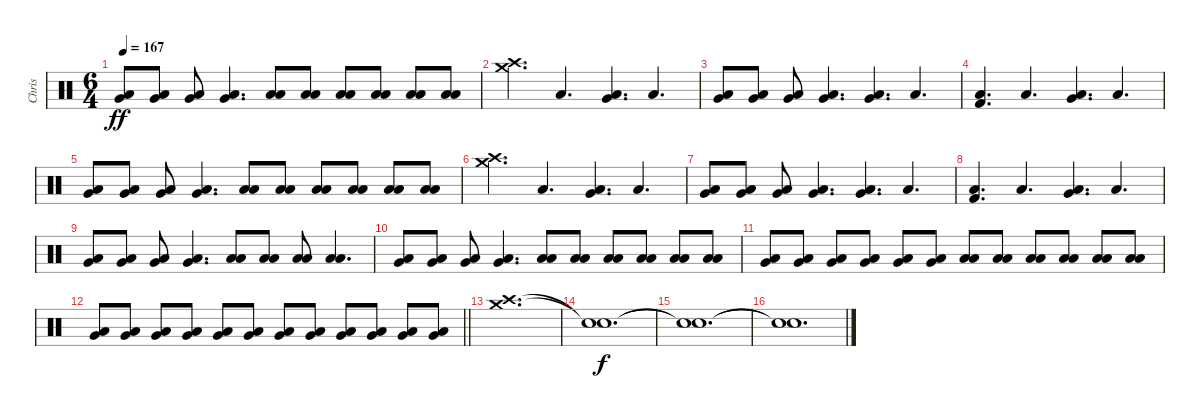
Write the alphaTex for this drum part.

\track ("Chris" "Chris") {instrument percussion}
\staff {score}
\articulation defaults
\ts (6 4)
\tempo 167
\clef neutral
\ks c
("Very Low Tom (hit)" "Low Floor Tom (hit)").8{dy ff} ("Very Low Tom (hit)" "Low Floor Tom (hit)").8 ("Very Low Tom (hit)" "Low Floor Tom (hit)").8 ("Very Low Tom (hit)" "Low Floor Tom (hit)").4{d} ("Low Floor Tom (hit)" "Low Floor Tom (hit)").8 ("Low Floor Tom (hit)" "Low Floor Tom (hit)").8 ("Low Floor Tom (hit)" "Low Floor Tom (hit)").8 ("Low Floor Tom (hit)" "Low Floor Tom (hit)").8 ("Low Floor Tom (hit)" "Low Floor Tom (hit)").8 ("Low Floor Tom (hit)" "Low Floor Tom (hit)").8 |
("Crash medium (hit)" "Crash high (hit)").4{d} "Low Floor Tom (hit)".4{d} ("Very Low Tom (hit)" "Low Floor Tom (hit)").4{d} "Low Floor Tom (hit)".4{d} |
("Very Low Tom (hit)" "Low Floor Tom (hit)").8 ("Very Low Tom (hit)" "Low Floor Tom (hit)").8 ("Very Low Tom (hit)" "Low Floor Tom (hit)").8 ("Very Low Tom (hit)" "Low Floor Tom (hit)").4{d} ("Very Low Tom (hit)" "Low Floor Tom (hit)").4{d} "Low Floor Tom (hit)".4{d} |
("Low Floor Tom (hit)" "Kick (hit) 2").4{d} "Low Floor Tom (hit)".4{d} ("Very Low Tom (hit)" "Low Floor Tom (hit)").4{d} "Low Floor Tom (hit)".4{d} |
("Very Low Tom (hit)" "Low Floor Tom (hit)").8 ("Very Low Tom (hit)" "Low Floor Tom (hit)").8 ("Very Low Tom (hit)" "Low Floor Tom (hit)").8 ("Very Low Tom (hit)" "Low Floor Tom (hit)").4{d} ("Low Floor Tom (hit)" "Low Floor Tom (hit)").8 ("Low Floor Tom (hit)" "Low Floor Tom (hit)").8 ("Low Floor Tom (hit)" "Low Floor Tom (hit)").8 ("Low Floor Tom (hit)" "Low Floor Tom (hit)").8 ("Low Floor Tom (hit)" "Low Floor Tom (hit)").8 ("Low Floor Tom (hit)" "Low Floor Tom (hit)").8 |
("Crash medium (hit)" "Crash high (hit)").4{d} "Low Floor Tom (hit)".4{d} ("Very Low Tom (hit)" "Low Floor Tom (hit)").4{d} "Low Floor Tom (hit)".4{d} |
("Very Low Tom (hit)" "Low Floor Tom (hit)").8 ("Very Low Tom (hit)" "Low Floor Tom (hit)").8 ("Very Low Tom (hit)" "Low Floor Tom (hit)").8 ("Very Low Tom (hit)" "Low Floor Tom (hit)").4{d} ("Very Low Tom (hit)" "Low Floor Tom (hit)").4{d} "Low Floor Tom (hit)".4{d} |
("Low Floor Tom (hit)" "Kick (hit) 2").4{d} "Low Floor Tom (hit)".4{d} ("Very Low Tom (hit)" "Low Floor Tom (hit)").4{d} "Low Floor Tom (hit)".4{d} |
("Very Low Tom (hit)" "Low Floor Tom (hit)").8 ("Very Low Tom (hit)" "Low Floor Tom (hit)").8 ("Very Low Tom (hit)" "Low Floor Tom (hit)").8 ("Very Low Tom (hit)" "Low Floor Tom (hit)").4{d} ("Low Floor Tom (hit)" "Low Floor Tom (hit)").8 ("Low Floor Tom (hit)" "Low Floor Tom (hit)").8 ("Low Floor Tom (hit)" "Low Floor Tom (hit)").8 ("Low Floor Tom (hit)" "Low Floor Tom (hit)").4{d} |
("Very Low Tom (hit)" "Low Floor Tom (hit)").8 ("Very Low Tom (hit)" "Low Floor Tom (hit)").8 ("Very Low Tom (hit)" "Low Floor Tom (hit)").8 ("Very Low Tom (hit)" "Low Floor Tom (hit)").4{d} ("Low Floor Tom (hit)" "Low Floor Tom (hit)").8 ("Low Floor Tom (hit)" "Low Floor Tom (hit)").8 ("Low Floor Tom (hit)" "Low Floor Tom (hit)").8 ("Low Floor Tom (hit)" "Low Floor Tom (hit)").8 ("Low Floor Tom (hit)" "Low Floor Tom (hit)").8 ("Low Floor Tom (hit)" "Low Floor Tom (hit)").8 |
("Very Low Tom (hit)" "Low Floor Tom (hit)").8 ("Very Low Tom (hit)" "Low Floor Tom (hit)").8 ("Very Low Tom (hit)" "Low Floor Tom (hit)").8 ("Very Low Tom (hit)" "Low Floor Tom (hit)").8 ("Very Low Tom (hit)" "Low Floor Tom (hit)").8 ("Very Low Tom (hit)" "Low Floor Tom (hit)").8 ("Low Floor Tom (hit)" "Low Floor Tom (hit)").8 ("Low Floor Tom (hit)" "Low Floor Tom (hit)").8 ("Low Floor Tom (hit)" "Low Floor Tom (hit)").8 ("Low Floor Tom (hit)" "Low Floor Tom (hit)").8 ("Low Floor Tom (hit)" "Low Floor Tom (hit)").8 ("Low Floor Tom (hit)" "Low Floor Tom (hit)").8 |
\barLineRight lightlight
("Very Low Tom (hit)" "Low Floor Tom (hit)").8 ("Very Low Tom (hit)" "Low Floor Tom (hit)").8 ("Very Low Tom (hit)" "Low Floor Tom (hit)").8 ("Very Low Tom (hit)" "Low Floor Tom (hit)").8 ("Very Low Tom (hit)" "Low Floor Tom (hit)").8 ("Very Low Tom (hit)" "Low Floor Tom (hit)").8 ("Very Low Tom (hit)" "Low Floor Tom (hit)").8 ("Very Low Tom (hit)" "Low Floor Tom (hit)").8 ("Very Low Tom (hit)" "Low Floor Tom (hit)").8 ("Very Low Tom (hit)" "Low Floor Tom (hit)").8 ("Very Low Tom (hit)" "Low Floor Tom (hit)").8 ("Very Low Tom (hit)" "Low Floor Tom (hit)").8 |
("Crash high (hit)" "Crash medium (hit)").1{d} |
("Snare (hit)"{t} "Snare (hit)"{t}).1{d dy f} |
("Snare (hit)"{t} "Snare (hit)"{t}).1{d} |
("Snare (hit)"{t} "Snare (hit)"{t}).1{d}
